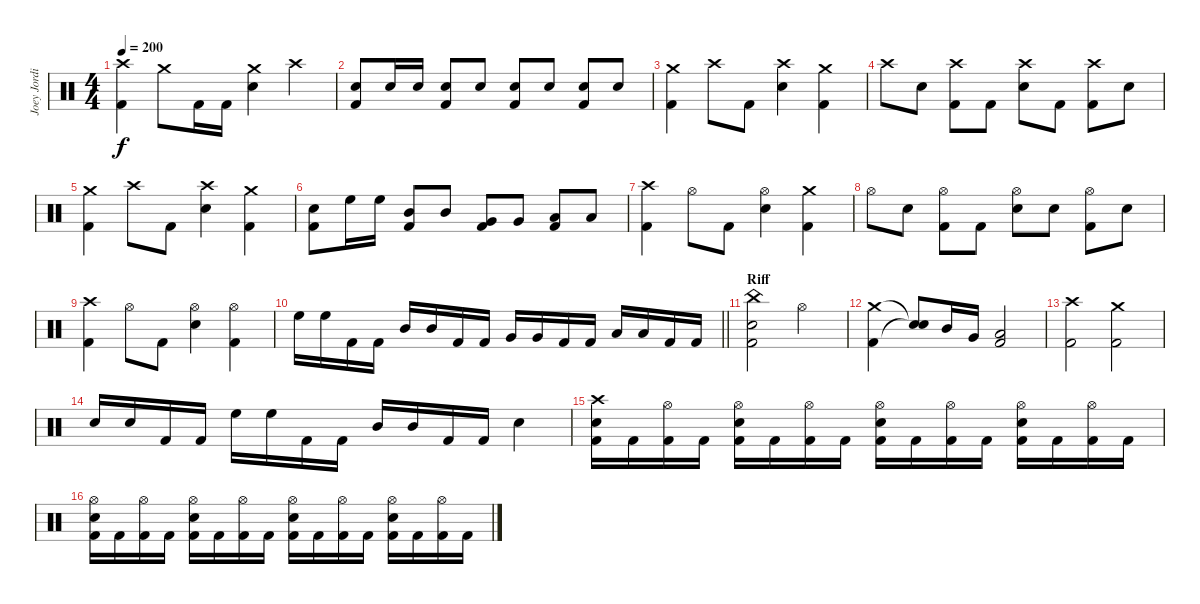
\track ("Joey Jordison" "Joey Jordi") {instrument percussion}
\staff {score}
\articulation defaults
\ts (4 4)
\tempo 200
\clef neutral
\ks c
("Crash high (hit)" "Kick (hit) 2").4{dy f} "Crash medium (hit)".8 "Kick (hit) 2".16 "Kick (hit) 2".16 ("Crash medium (hit)" "Electric Snare (hit)").4 "Crash high (hit)".4 |
("Electric Snare (hit)" "Kick (hit) 2").8 "Electric Snare (hit)".16 "Electric Snare (hit)".16 ("Electric Snare (hit)" "Kick (hit) 2").8 "Electric Snare (hit)".8 ("Electric Snare (hit)" "Kick (hit) 2").8 "Electric Snare (hit)".8 ("Electric Snare (hit)" "Kick (hit) 2").8 "Electric Snare (hit)".8 |
("Crash medium (hit)" "Kick (hit) 2").4 "Crash high (hit)".8 "Kick (hit) 2".8 ("Crash high (hit)" "Electric Snare (hit)").4 ("Crash medium (hit)" "Kick (hit) 2").4 |
"Crash high (hit)".8 "Electric Snare (hit)".8 ("Crash high (hit)" "Kick (hit) 2").8 "Kick (hit) 2".8 ("Crash high (hit)" "Electric Snare (hit)").8 "Kick (hit) 2".8 ("Crash high (hit)" "Kick (hit) 2").8 "Electric Snare (hit)".8 |
("Crash medium (hit)" "Kick (hit) 2").4 "Crash high (hit)".8 "Kick (hit) 2".8 ("Crash high (hit)" "Electric Snare (hit)").4 ("Crash medium (hit)" "Kick (hit) 2").4 |
("Electric Snare (hit)" "Kick (hit) 2").8 "High Floor Tom (hit)".16 "High Floor Tom (hit)".16 ("Mid Tom (hit)" "Kick (hit) 2").8 "Mid Tom (hit)".8 ("Very Low Tom (hit)" "Kick (hit) 2").8 "Very Low Tom (hit)".8 ("Low Floor Tom (hit)" "Kick (hit) 2").8 "Low Floor Tom (hit)".8 |
("Crash high (hit)" "Kick (hit) 2").4 "Hi-Hat (open)".8 "Kick (hit) 2".8 ("Hi-Hat (open)" "Electric Snare (hit)").4 ("Crash medium (hit)" "Kick (hit) 2").4 |
"Hi-Hat (open)".8 "Electric Snare (hit)".8 ("Hi-Hat (open)" "Kick (hit) 2").8 "Kick (hit) 2".8 ("Hi-Hat (open)" "Electric Snare (hit)").8 "Electric Snare (hit)".8 ("Hi-Hat (open)" "Kick (hit) 2").8 "Electric Snare (hit)".8 |
("Crash high (hit)" "Kick (hit) 2").4 "Hi-Hat (open)".8 "Kick (hit) 2".8 ("Hi-Hat (open)" "Electric Snare (hit)").4 ("Hi-Hat (open)" "Kick (hit) 2").4 |
\barLineRight lightlight "High Floor Tom (hit)".16 "High Floor Tom (hit)".16 "Kick (hit) 2".16 "Kick (hit) 2".16 "Mid Tom (hit)".16 "Mid Tom (hit)".16 "Kick (hit) 2".16 "Kick (hit) 2".16 "Very Low Tom (hit)".16 "Very Low Tom (hit)".16 "Kick (hit) 2".16 "Kick (hit) 2".16 "Low Floor Tom (hit)".16 "Low Floor Tom (hit)".16 "Kick (hit) 2".16 "Kick (hit) 2".16
|
\section ("" "Riff")
("China (hit)" "Electric Snare (hit)" "Kick (hit) 2").2 "Hi-Hat (open)".2 |
("Crash medium (hit)" "Kick (hit) 2").4 ("Snare (hit)"{t} "Snare (hit)"{t}).8 "Mid Tom (hit)".16 "Very Low Tom (hit)".16 ("Low Floor Tom (hit)" "Kick (hit) 2").2 |
("Crash high (hit)" "Kick (hit) 2").2 ("Crash medium (hit)" "Kick (hit) 2").2 |
"Electric Snare (hit)".16 "Electric Snare (hit)".16 "Kick (hit) 2".16 "Kick (hit) 2".16 "High Floor Tom (hit)".16 "High Floor Tom (hit)".16 "Kick (hit) 2".16 "Kick (hit) 2".16 "Mid Tom (hit)".16 "Mid Tom (hit)".16 "Kick (hit) 2".16 "Kick (hit) 2".16 "Electric Snare (hit)".4 |
("Crash high (hit)" "Electric Snare (hit)" "Kick (hit) 2").16 "Kick (hit) 2".16 ("Hi-Hat (open)" "Kick (hit) 2").16 "Kick (hit) 2".16 ("Hi-Hat (open)" "Electric Snare (hit)" "Kick (hit) 2").16 "Kick (hit) 2".16 ("Hi-Hat (open)" "Kick (hit) 2").16 "Kick (hit) 2".16 ("Hi-Hat (open)" "Electric Snare (hit)" "Kick (hit) 2").16 "Kick (hit) 2".16 ("Hi-Hat (open)" "Kick (hit) 2").16 "Kick (hit) 2".16 ("Hi-Hat (open)" "Electric Snare (hit)" "Kick (hit) 2").16 "Kick (hit) 2".16 ("Hi-Hat (open)" "Kick (hit) 2").16 "Kick (hit) 2".16 |
("Hi-Hat (open)" "Electric Snare (hit)" "Kick (hit) 2").16 "Kick (hit) 2".16 ("Hi-Hat (open)" "Kick (hit) 2").16 "Kick (hit) 2".16 ("Hi-Hat (open)" "Electric Snare (hit)" "Kick (hit) 2").16 "Kick (hit) 2".16 ("Hi-Hat (open)" "Kick (hit) 2").16 "Kick (hit) 2".16 ("Hi-Hat (open)" "Electric Snare (hit)" "Kick (hit) 2").16 "Kick (hit) 2".16 ("Hi-Hat (open)" "Kick (hit) 2").16 "Kick (hit) 2".16 ("Hi-Hat (open)" "Electric Snare (hit)" "Kick (hit) 2").16 "Kick (hit) 2".16 ("Hi-Hat (open)" "Kick (hit) 2").16 "Kick (hit) 2".16
